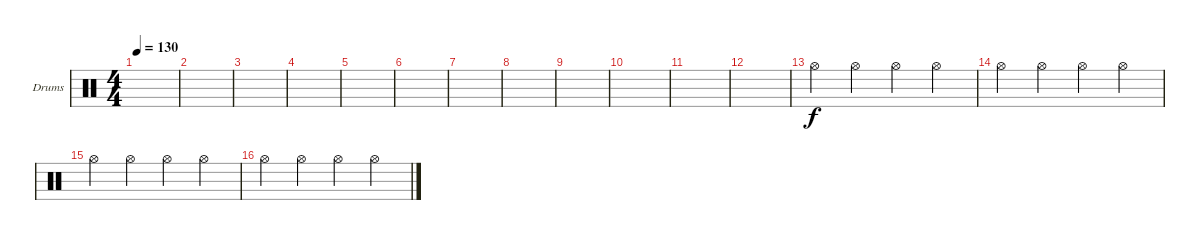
\defaultSystemsLayout 4
\bracketExtendMode groupsimilarinstruments
\firstSystemTrackNameOrientation horizontal
\otherSystemsTrackNameOrientation horizontal
\track ("Drumkit" "Drums") {instrument percussion}
\staff {score}
\articulation defaults
\ts (4 4)
\tempo 130
\clef neutral
\scale
0.333333
\ks c
|
\scale
0.333333 |
\scale
0.333333 |
\scale
0.333333 |
\scale
0.333333 |
\scale
0.333333 |
\scale
0.333333 |
\scale
0.333333 |
\scale
0.333333 |
\scale
0.333333 |
\scale
0.333333 |
\scale
0.333333 |
\scale
0.333333 "Hi-Hat (open)".4 "Hi-Hat (open)".4 "Hi-Hat (open)".4 "Hi-Hat (open)".4 |
\scale
0.333333 "Hi-Hat (open)".4 "Hi-Hat (open)".4 "Hi-Hat (open)".4 "Hi-Hat (open)".4 |
\scale
0.333333 "Hi-Hat (open)".4 "Hi-Hat (open)".4 "Hi-Hat (open)".4 "Hi-Hat (open)".4 |
\scale
0.333333 "Hi-Hat (open)".4 "Hi-Hat (open)".4 "Hi-Hat (open)".4 "Hi-Hat (open)".4
